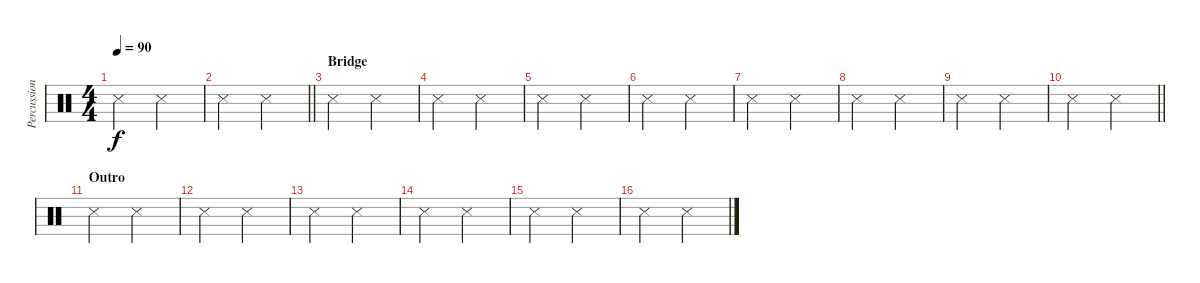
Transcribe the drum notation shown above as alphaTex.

\track ("Percussion" "Percussion") {instrument percussion}
\staff {score}
\articulation defaults
\ts (4 4)
\tempo 90
\clef neutral
\ks c "Snare (side stick) 3".2{dy f} "Snare (side stick) 3".2
|
\barLineRight lightlight "Snare (side stick) 3".2 "Snare (side stick) 3".2
|
\section ("" "Bridge")
"Snare (side stick) 3".2 "Snare (side stick) 3".2 |
"Snare (side stick) 3".2 "Snare (side stick) 3".2 |
"Snare (side stick) 3".2 "Snare (side stick) 3".2 |
"Snare (side stick) 3".2 "Snare (side stick) 3".2 |
"Snare (side stick) 3".2 "Snare (side stick) 3".2 |
"Snare (side stick) 3".2 "Snare (side stick) 3".2 |
"Snare (side stick) 3".2 "Snare (side stick) 3".2 |
\barLineRight lightlight "Snare (side stick) 3".2 "Snare (side stick) 3".2
|
\section ("" "Outro")
"Snare (side stick) 3".2 "Snare (side stick) 3".2 |
"Snare (side stick) 3".2 "Snare (side stick) 3".2 |
"Snare (side stick) 3".2 "Snare (side stick) 3".2 |
"Snare (side stick) 3".2 "Snare (side stick) 3".2 |
"Snare (side stick) 3".2 "Snare (side stick) 3".2 |
"Snare (side stick) 3".2 "Snare (side stick) 3".2
